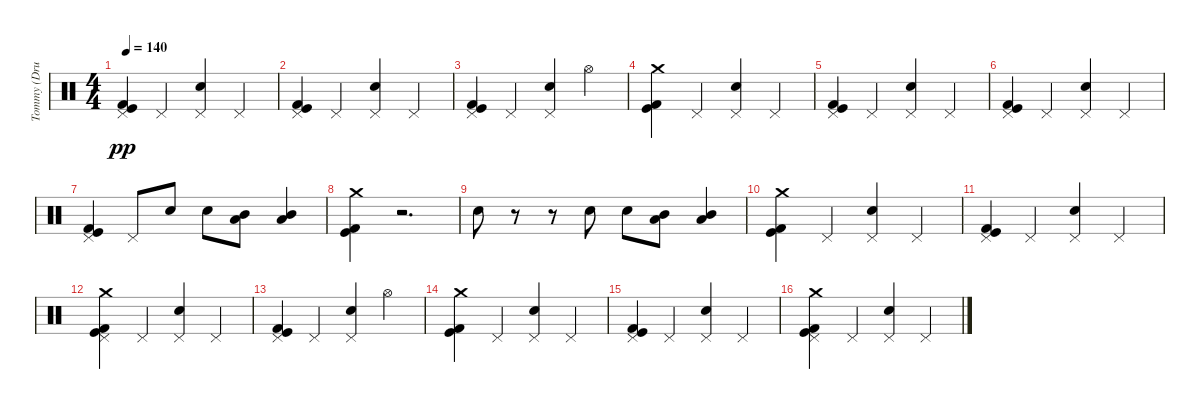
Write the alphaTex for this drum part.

\track ("Tommy (Drums)" "Tommy (Dru") {instrument percussion}
\staff {score}
\articulation defaults
\ts (4 4)
\tempo 140
\clef neutral
\ks c
("Pedal Hi-Hat (hit)" "Kick (hit) 2" "Kick (hit)").4{dy pp} "Pedal Hi-Hat (hit)".4 ("Pedal Hi-Hat (hit)" "Snare (hit) 2").4 "Pedal Hi-Hat (hit)".4 |
("Pedal Hi-Hat (hit)" "Kick (hit) 2" "Kick (hit)").4 "Pedal Hi-Hat (hit)".4 ("Pedal Hi-Hat (hit)" "Snare (hit) 2").4 "Pedal Hi-Hat (hit)".4 |
("Pedal Hi-Hat (hit)" "Kick (hit) 2" "Kick (hit)").4 "Pedal Hi-Hat (hit)".4 ("Pedal Hi-Hat (hit)" "Snare (hit) 2").4 "Hi-Hat (open)".4 |
("Kick (hit) 2" "Kick (hit)" "Crash medium (hit)").4 "Pedal Hi-Hat (hit)".4 ("Pedal Hi-Hat (hit)" "Snare (hit) 2").4 "Pedal Hi-Hat (hit)".4 |
("Pedal Hi-Hat (hit)" "Kick (hit) 2" "Kick (hit)").4 "Pedal Hi-Hat (hit)".4 ("Pedal Hi-Hat (hit)" "Snare (hit) 2").4 "Pedal Hi-Hat (hit)".4 |
("Pedal Hi-Hat (hit)" "Kick (hit) 2" "Kick (hit)").4 "Pedal Hi-Hat (hit)".4 ("Pedal Hi-Hat (hit)" "Snare (hit) 2").4 "Pedal Hi-Hat (hit)".4 |
("Pedal Hi-Hat (hit)" "Kick (hit) 2" "Kick (hit)").4 "Pedal Hi-Hat (hit)".8 "Snare (hit) 2".8 "Snare (hit) 2".8 ("Low Tom (hit)" "Mid Tom (hit)").8 ("Low Tom (hit)" "Mid Tom (hit)").4 |
("Crash medium (hit)" "Kick (hit) 2" "Kick (hit)").4 r.2{d} |
"Snare (hit) 2".8 r.8 r.8 "Snare (hit) 2".8 "Snare (hit) 2".8 ("Low Tom (hit)" "Mid Tom (hit)").8 ("Low Tom (hit)" "Mid Tom (hit)").4 |
("Kick (hit) 2" "Kick (hit)" "Crash medium (hit)").4 "Pedal Hi-Hat (hit)".4 ("Pedal Hi-Hat (hit)" "Snare (hit) 2").4 "Pedal Hi-Hat (hit)".4 |
("Pedal Hi-Hat (hit)" "Kick (hit) 2" "Kick (hit)").4 "Pedal Hi-Hat (hit)".4 ("Pedal Hi-Hat (hit)" "Snare (hit) 2").4 "Pedal Hi-Hat (hit)".4 |
("Crash medium (hit)" "Pedal Hi-Hat (hit)" "Kick (hit) 2" "Kick (hit)").4 "Pedal Hi-Hat (hit)".4 ("Pedal Hi-Hat (hit)" "Snare (hit) 2").4 "Pedal Hi-Hat (hit)".4 |
("Pedal Hi-Hat (hit)" "Kick (hit) 2" "Kick (hit)").4 "Pedal Hi-Hat (hit)".4 ("Pedal Hi-Hat (hit)" "Snare (hit) 2").4 "Hi-Hat (open)".4 |
("Kick (hit) 2" "Kick (hit)" "Crash medium (hit)").4 "Pedal Hi-Hat (hit)".4 ("Pedal Hi-Hat (hit)" "Snare (hit) 2").4 "Pedal Hi-Hat (hit)".4 |
("Pedal Hi-Hat (hit)" "Kick (hit) 2" "Kick (hit)").4 "Pedal Hi-Hat (hit)".4 ("Pedal Hi-Hat (hit)" "Snare (hit) 2").4 "Pedal Hi-Hat (hit)".4 |
("Crash medium (hit)" "Pedal Hi-Hat (hit)" "Kick (hit) 2" "Kick (hit)").4 "Pedal Hi-Hat (hit)".4 ("Pedal Hi-Hat (hit)" "Snare (hit) 2").4 "Pedal Hi-Hat (hit)".4
